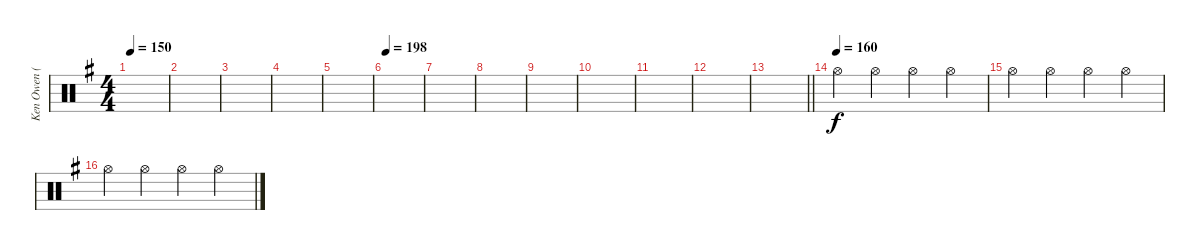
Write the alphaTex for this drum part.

\track ("Ken Owen (Extra Cymbals)" "Ken Owen (") {instrument percussion}
\staff {score}
\articulation defaults
\ts (4 4)
\tempo 150
\clef neutral
\ks g
|
|
|
|
|
\tempo 198
|
|
|
|
|
|
|
\barLineRight lightlight
|
\tempo (160)
"Hi-Hat (open)".4 "Hi-Hat (open)".4 "Hi-Hat (open)".4 "Hi-Hat (open)".4 |
"Hi-Hat (open)".4 "Hi-Hat (open)".4 "Hi-Hat (open)".4 "Hi-Hat (open)".4 |
"Hi-Hat (open)".4 "Hi-Hat (open)".4 "Hi-Hat (open)".4 "Hi-Hat (open)".4
